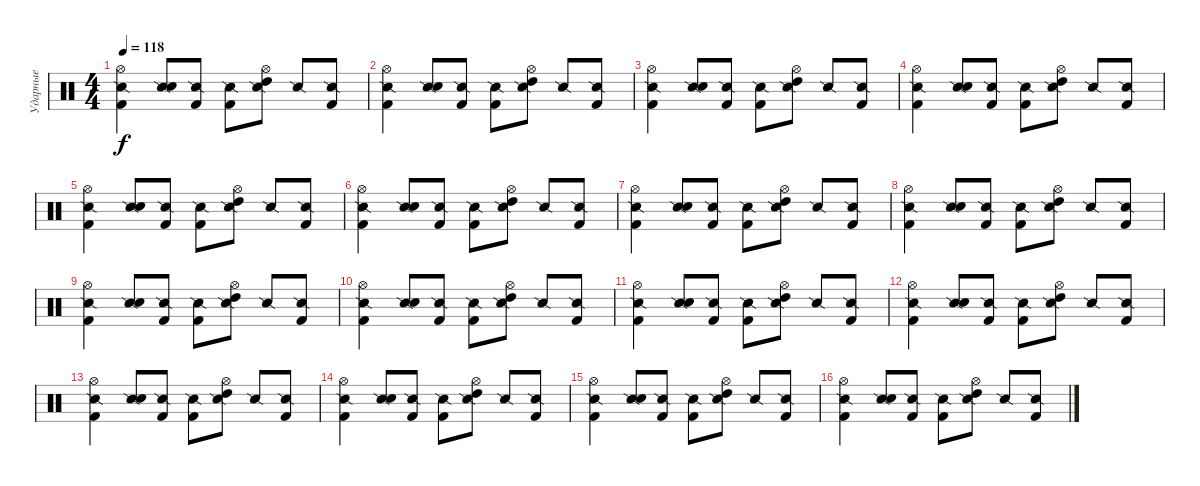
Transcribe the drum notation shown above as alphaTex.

\track ("Ударные" "Ударные") {solo instrument percussion}
\staff {score}
\articulation defaults
\ts (4 4)
\tempo 118
\clef neutral
\ks c
("Hi-Hat (open)" "Snare (side stick) 2" "Kick (hit) 2").4{dy f} ("Snare (side stick) 2" "Electric Snare (hit)").8 ("Snare (side stick) 2" "Kick (hit) 2").8 ("Snare (side stick) 2" "Kick (hit) 2").8 ("Hi-Hat (open)" "Snare (side stick) 2" "High Tom (hit)").8 "Snare (side stick) 2".8 ("Snare (side stick) 2" "Kick (hit) 2").8 |
("Hi-Hat (open)" "Snare (side stick) 2" "Kick (hit) 2").4 ("Snare (side stick) 2" "Electric Snare (hit)").8 ("Snare (side stick) 2" "Kick (hit) 2").8 ("Snare (side stick) 2" "Kick (hit) 2").8 ("Hi-Hat (open)" "Snare (side stick) 2" "High Tom (hit)").8 "Snare (side stick) 2".8 ("Snare (side stick) 2" "Kick (hit) 2").8 |
("Hi-Hat (open)" "Snare (side stick) 2" "Kick (hit) 2").4 ("Snare (side stick) 2" "Electric Snare (hit)").8 ("Snare (side stick) 2" "Kick (hit) 2").8 ("Snare (side stick) 2" "Kick (hit) 2").8 ("Hi-Hat (open)" "Snare (side stick) 2" "High Tom (hit)").8 "Snare (side stick) 2".8 ("Snare (side stick) 2" "Kick (hit) 2").8 |
("Hi-Hat (open)" "Snare (side stick) 2" "Kick (hit) 2").4 ("Snare (side stick) 2" "Electric Snare (hit)").8 ("Snare (side stick) 2" "Kick (hit) 2").8 ("Snare (side stick) 2" "Kick (hit) 2").8 ("Hi-Hat (open)" "Snare (side stick) 2" "High Tom (hit)").8 "Snare (side stick) 2".8 ("Snare (side stick) 2" "Kick (hit) 2").8 |
("Hi-Hat (open)" "Snare (side stick) 2" "Kick (hit) 2").4 ("Snare (side stick) 2" "Electric Snare (hit)").8 ("Snare (side stick) 2" "Kick (hit) 2").8 ("Snare (side stick) 2" "Kick (hit) 2").8 ("Hi-Hat (open)" "Snare (side stick) 2" "High Tom (hit)").8 "Snare (side stick) 2".8 ("Snare (side stick) 2" "Kick (hit) 2").8 |
("Hi-Hat (open)" "Snare (side stick) 2" "Kick (hit) 2").4 ("Snare (side stick) 2" "Electric Snare (hit)").8 ("Snare (side stick) 2" "Kick (hit) 2").8 ("Snare (side stick) 2" "Kick (hit) 2").8 ("Hi-Hat (open)" "Snare (side stick) 2" "High Tom (hit)").8 "Snare (side stick) 2".8 ("Snare (side stick) 2" "Kick (hit) 2").8 |
("Hi-Hat (open)" "Snare (side stick) 2" "Kick (hit) 2").4 ("Snare (side stick) 2" "Electric Snare (hit)").8 ("Snare (side stick) 2" "Kick (hit) 2").8 ("Snare (side stick) 2" "Kick (hit) 2").8 ("Hi-Hat (open)" "Snare (side stick) 2" "High Tom (hit)").8 "Snare (side stick) 2".8 ("Snare (side stick) 2" "Kick (hit) 2").8 |
("Hi-Hat (open)" "Snare (side stick) 2" "Kick (hit) 2").4 ("Snare (side stick) 2" "Electric Snare (hit)").8 ("Snare (side stick) 2" "Kick (hit) 2").8 ("Snare (side stick) 2" "Kick (hit) 2").8 ("Hi-Hat (open)" "Snare (side stick) 2" "High Tom (hit)").8 "Snare (side stick) 2".8 ("Snare (side stick) 2" "Kick (hit) 2").8 |
("Hi-Hat (open)" "Snare (side stick) 2" "Kick (hit) 2").4 ("Snare (side stick) 2" "Electric Snare (hit)").8 ("Snare (side stick) 2" "Kick (hit) 2").8 ("Snare (side stick) 2" "Kick (hit) 2").8 ("Hi-Hat (open)" "Snare (side stick) 2" "High Tom (hit)").8 "Snare (side stick) 2".8 ("Snare (side stick) 2" "Kick (hit) 2").8 |
("Hi-Hat (open)" "Snare (side stick) 2" "Kick (hit) 2").4 ("Snare (side stick) 2" "Electric Snare (hit)").8 ("Snare (side stick) 2" "Kick (hit) 2").8 ("Snare (side stick) 2" "Kick (hit) 2").8 ("Hi-Hat (open)" "Snare (side stick) 2" "High Tom (hit)").8 "Snare (side stick) 2".8 ("Snare (side stick) 2" "Kick (hit) 2").8 |
("Hi-Hat (open)" "Snare (side stick) 2" "Kick (hit) 2").4 ("Snare (side stick) 2" "Electric Snare (hit)").8 ("Snare (side stick) 2" "Kick (hit) 2").8 ("Snare (side stick) 2" "Kick (hit) 2").8 ("Hi-Hat (open)" "Snare (side stick) 2" "High Tom (hit)").8 "Snare (side stick) 2".8 ("Snare (side stick) 2" "Kick (hit) 2").8 |
("Hi-Hat (open)" "Snare (side stick) 2" "Kick (hit) 2").4 ("Snare (side stick) 2" "Electric Snare (hit)").8 ("Snare (side stick) 2" "Kick (hit) 2").8 ("Snare (side stick) 2" "Kick (hit) 2").8 ("Hi-Hat (open)" "Snare (side stick) 2" "High Tom (hit)").8 "Snare (side stick) 2".8 ("Snare (side stick) 2" "Kick (hit) 2").8 |
("Hi-Hat (open)" "Snare (side stick) 2" "Kick (hit) 2").4 ("Snare (side stick) 2" "Electric Snare (hit)").8 ("Snare (side stick) 2" "Kick (hit) 2").8 ("Snare (side stick) 2" "Kick (hit) 2").8 ("Hi-Hat (open)" "Snare (side stick) 2" "High Tom (hit)").8 "Snare (side stick) 2".8 ("Snare (side stick) 2" "Kick (hit) 2").8 |
("Hi-Hat (open)" "Snare (side stick) 2" "Kick (hit) 2").4 ("Snare (side stick) 2" "Electric Snare (hit)").8 ("Snare (side stick) 2" "Kick (hit) 2").8 ("Snare (side stick) 2" "Kick (hit) 2").8 ("Hi-Hat (open)" "Snare (side stick) 2" "High Tom (hit)").8 "Snare (side stick) 2".8 ("Snare (side stick) 2" "Kick (hit) 2").8 |
("Hi-Hat (open)" "Snare (side stick) 2" "Kick (hit) 2").4 ("Snare (side stick) 2" "Electric Snare (hit)").8 ("Snare (side stick) 2" "Kick (hit) 2").8 ("Snare (side stick) 2" "Kick (hit) 2").8 ("Hi-Hat (open)" "Snare (side stick) 2" "High Tom (hit)").8 "Snare (side stick) 2".8 ("Snare (side stick) 2" "Kick (hit) 2").8 |
("Hi-Hat (open)" "Snare (side stick) 2" "Kick (hit) 2").4 ("Snare (side stick) 2" "Electric Snare (hit)").8 ("Snare (side stick) 2" "Kick (hit) 2").8 ("Snare (side stick) 2" "Kick (hit) 2").8 ("Hi-Hat (open)" "Snare (side stick) 2" "High Tom (hit)").8 "Snare (side stick) 2".8 ("Snare (side stick) 2" "Kick (hit) 2").8
